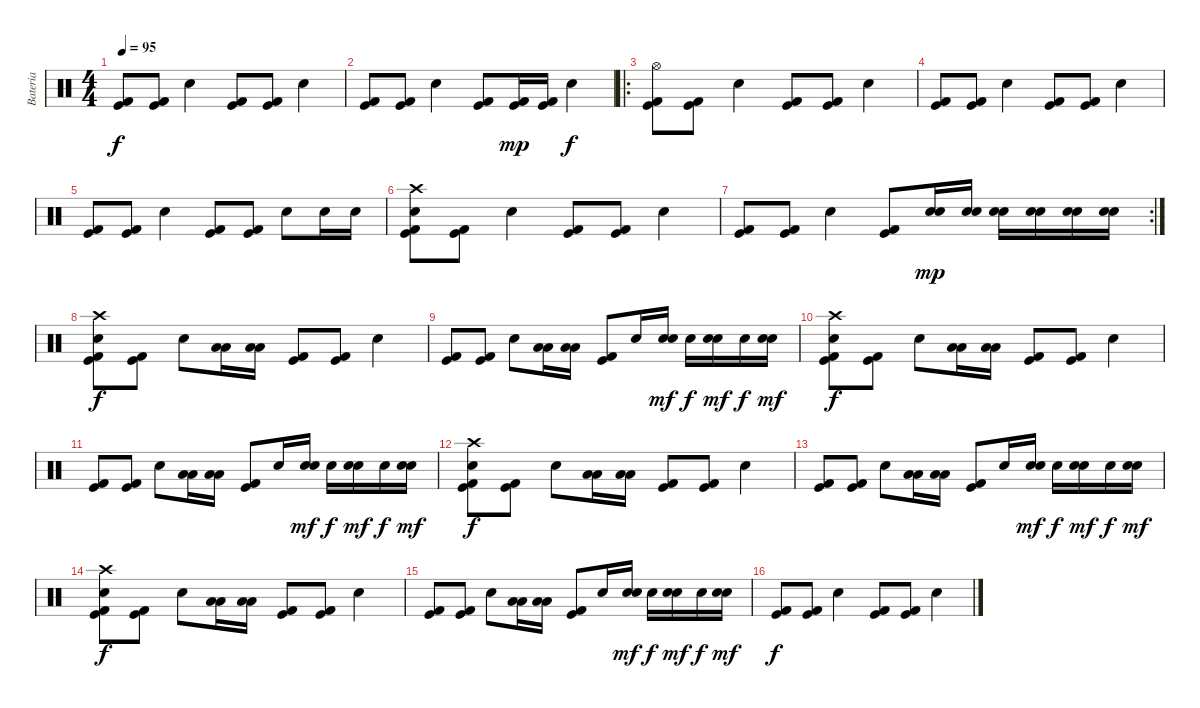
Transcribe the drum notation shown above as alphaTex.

\track ("Bateria" "Bateria") {instrument percussion}
\staff {score}
\articulation defaults
\ts (4 4)
\tempo 95
\clef neutral
\ks c
("Kick (hit)" "Kick (hit) 2").8{dy f} ("Kick (hit)" "Kick (hit) 2").8 "Electric Snare (hit)".4 ("Kick (hit)" "Kick (hit) 2").8 ("Kick (hit)" "Kick (hit) 2").8 "Electric Snare (hit)".4 |
("Kick (hit)" "Kick (hit) 2").8 ("Kick (hit)" "Kick (hit) 2").8 "Electric Snare (hit)".4 ("Kick (hit)" "Kick (hit) 2").8 ("Kick (hit)" "Kick (hit) 2").16{dy mp} ("Kick (hit)" "Kick (hit) 2").16 "Electric Snare (hit)".4{dy f} |
\ro
("Hi-Hat (open)" "Kick (hit)" "Kick (hit) 2").8 ("Kick (hit)" "Kick (hit) 2").8 "Electric Snare (hit)".4 ("Kick (hit)" "Kick (hit) 2").8 ("Kick (hit)" "Kick (hit) 2").8 "Electric Snare (hit)".4 |
("Kick (hit)" "Kick (hit) 2").8 ("Kick (hit)" "Kick (hit) 2").8 "Electric Snare (hit)".4 ("Kick (hit)" "Kick (hit) 2").8 ("Kick (hit)" "Kick (hit) 2").8 "Electric Snare (hit)".4 |
("Kick (hit)" "Kick (hit) 2").8 ("Kick (hit)" "Kick (hit) 2").8 "Electric Snare (hit)".4 ("Kick (hit)" "Kick (hit) 2").8 ("Kick (hit)" "Kick (hit) 2").8 "Electric Snare (hit)".8 "Electric Snare (hit)".16 "Electric Snare (hit)".16 |
("Crash high (hit)" "Electric Snare (hit)" "Kick (hit)" "Kick (hit) 2").8 ("Kick (hit)" "Kick (hit) 2").8 "Electric Snare (hit)".4 ("Kick (hit)" "Kick (hit) 2").8 ("Kick (hit)" "Kick (hit) 2").8 "Electric Snare (hit)".4 |
\rc 2
("Kick (hit)" "Kick (hit) 2").8 ("Kick (hit)" "Kick (hit) 2").8 "Electric Snare (hit)".4 ("Kick (hit)" "Kick (hit) 2").8 ("Snare (hit) 2" "Electric Snare (hit)").16{dy mp} ("Snare (hit) 2" "Electric Snare (hit)").16 ("Snare (hit) 2" "Electric Snare (hit)").16 ("Snare (hit) 2" "Electric Snare (hit)").16 ("Snare (hit) 2" "Electric Snare (hit)").16 ("Snare (hit) 2" "Electric Snare (hit)").16 |
("Crash high (hit)" "Electric Snare (hit)" "Kick (hit)" "Kick (hit) 2").8{dy f} ("Kick (hit)" "Kick (hit) 2").8 "Electric Snare (hit)".8 ("Low Tom (hit)" "Low Tom (hit)").16 ("Low Tom (hit)" "Low Tom (hit)").16 ("Kick (hit)" "Kick (hit) 2").8 ("Kick (hit)" "Kick (hit) 2").8 "Electric Snare (hit)".4 |
("Kick (hit)" "Kick (hit) 2").8 ("Kick (hit)" "Kick (hit) 2").8 "Electric Snare (hit)".8 ("Low Tom (hit)" "Low Tom (hit)").16 ("Low Tom (hit)" "Low Tom (hit)").16 ("Kick (hit)" "Kick (hit) 2").8 "Electric Snare (hit)".16 ("Snare (hit) 2" "Electric Snare (hit)").16{dy mf} "Electric Snare (hit)".16{dy f} ("Snare (hit) 2" "Electric Snare (hit)").16{dy mf} "Electric Snare (hit)".16{dy f} ("Snare (hit) 2" "Electric Snare (hit)").16{dy mf} |
("Crash high (hit)" "Electric Snare (hit)" "Kick (hit)" "Kick (hit) 2").8{dy f} ("Kick (hit)" "Kick (hit) 2").8 "Electric Snare (hit)".8 ("Low Tom (hit)" "Low Tom (hit)").16 ("Low Tom (hit)" "Low Tom (hit)").16 ("Kick (hit)" "Kick (hit) 2").8 ("Kick (hit)" "Kick (hit) 2").8 "Electric Snare (hit)".4 |
("Kick (hit)" "Kick (hit) 2").8 ("Kick (hit)" "Kick (hit) 2").8 "Electric Snare (hit)".8 ("Low Tom (hit)" "Low Tom (hit)").16 ("Low Tom (hit)" "Low Tom (hit)").16 ("Kick (hit)" "Kick (hit) 2").8 "Electric Snare (hit)".16 ("Snare (hit) 2" "Electric Snare (hit)").16{dy mf} "Electric Snare (hit)".16{dy f} ("Snare (hit) 2" "Electric Snare (hit)").16{dy mf} "Electric Snare (hit)".16{dy f} ("Snare (hit) 2" "Electric Snare (hit)").16{dy mf} |
("Crash high (hit)" "Electric Snare (hit)" "Kick (hit)" "Kick (hit) 2").8{dy f} ("Kick (hit)" "Kick (hit) 2").8 "Electric Snare (hit)".8 ("Low Tom (hit)" "Low Tom (hit)").16 ("Low Tom (hit)" "Low Tom (hit)").16 ("Kick (hit)" "Kick (hit) 2").8 ("Kick (hit)" "Kick (hit) 2").8 "Electric Snare (hit)".4 |
("Kick (hit)" "Kick (hit) 2").8 ("Kick (hit)" "Kick (hit) 2").8 "Electric Snare (hit)".8 ("Low Tom (hit)" "Low Tom (hit)").16 ("Low Tom (hit)" "Low Tom (hit)").16 ("Kick (hit)" "Kick (hit) 2").8 "Electric Snare (hit)".16 ("Snare (hit) 2" "Electric Snare (hit)").16{dy mf} "Electric Snare (hit)".16{dy f} ("Snare (hit) 2" "Electric Snare (hit)").16{dy mf} "Electric Snare (hit)".16{dy f} ("Snare (hit) 2" "Electric Snare (hit)").16{dy mf} |
("Crash high (hit)" "Electric Snare (hit)" "Kick (hit)" "Kick (hit) 2").8{dy f} ("Kick (hit)" "Kick (hit) 2").8 "Electric Snare (hit)".8 ("Low Tom (hit)" "Low Tom (hit)").16 ("Low Tom (hit)" "Low Tom (hit)").16 ("Kick (hit)" "Kick (hit) 2").8 ("Kick (hit)" "Kick (hit) 2").8 "Electric Snare (hit)".4 |
("Kick (hit)" "Kick (hit) 2").8 ("Kick (hit)" "Kick (hit) 2").8 "Electric Snare (hit)".8 ("Low Tom (hit)" "Low Tom (hit)").16 ("Low Tom (hit)" "Low Tom (hit)").16 ("Kick (hit)" "Kick (hit) 2").8 "Electric Snare (hit)".16 ("Snare (hit) 2" "Electric Snare (hit)").16{dy mf} "Electric Snare (hit)".16{dy f} ("Snare (hit) 2" "Electric Snare (hit)").16{dy mf} "Electric Snare (hit)".16{dy f} ("Snare (hit) 2" "Electric Snare (hit)").16{dy mf} |
("Kick (hit)" "Kick (hit) 2").8{dy f} ("Kick (hit)" "Kick (hit) 2").8 "Electric Snare (hit)".4 ("Kick (hit)" "Kick (hit) 2").8 ("Kick (hit)" "Kick (hit) 2").8 "Electric Snare (hit)".4
